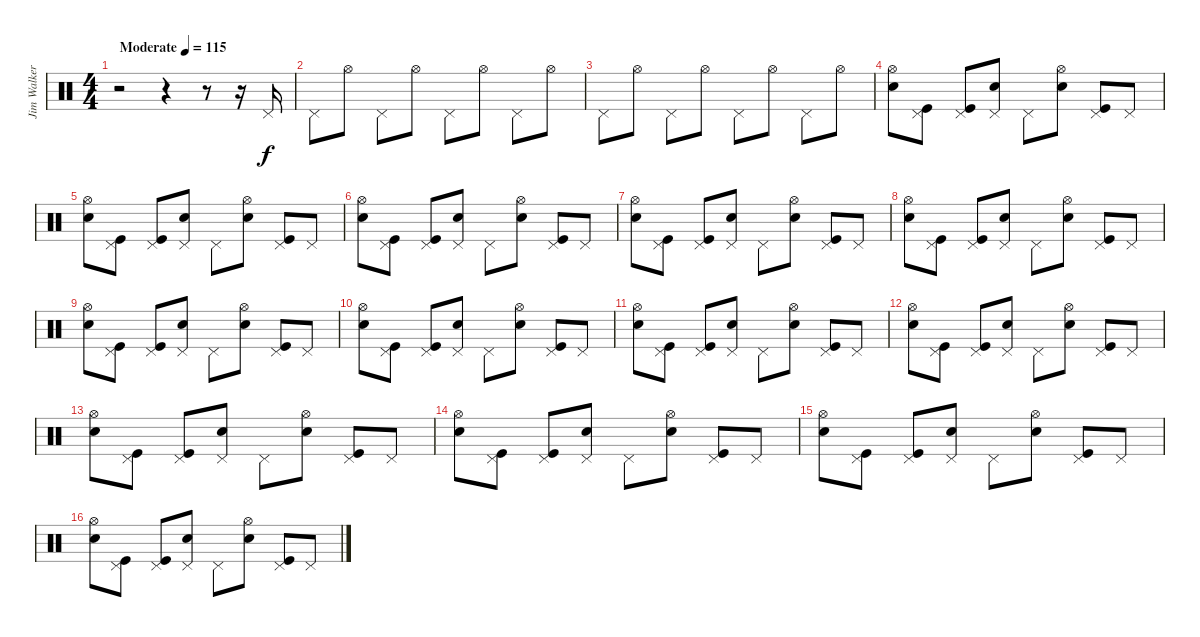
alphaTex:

\track ("Jim Walker-Drums" "Jim Walker") {instrument percussion}
\staff {score}
\articulation defaults
\ts (4 4)
\tempo (115 "Moderate")
\clef neutral
\ks c
r.2{dy f} r.4 r.8 r.16 "Pedal Hi-Hat (hit)".16 |
"Pedal Hi-Hat (hit)".8 "Hi-Hat (open)".8 "Pedal Hi-Hat (hit)".8 "Hi-Hat (open)".8 "Pedal Hi-Hat (hit)".8 "Hi-Hat (open)".8 "Pedal Hi-Hat (hit)".8 "Hi-Hat (open)".8 |
"Pedal Hi-Hat (hit)".8 "Hi-Hat (open)".8 "Pedal Hi-Hat (hit)".8 "Hi-Hat (open)".8 "Pedal Hi-Hat (hit)".8 "Hi-Hat (open)".8 "Pedal Hi-Hat (hit)".8 "Hi-Hat (open)".8 |
("Hi-Hat (open)" "Electric Snare (hit)").8 ("Pedal Hi-Hat (hit)" "Kick (hit)").8 ("Pedal Hi-Hat (hit)" "Kick (hit)").8 ("Pedal Hi-Hat (hit)" "Electric Snare (hit)").8 "Pedal Hi-Hat (hit)".8 ("Hi-Hat (open)" "Electric Snare (hit)").8 ("Pedal Hi-Hat (hit)" "Kick (hit)").8 "Pedal Hi-Hat (hit)".8 |
("Hi-Hat (open)" "Electric Snare (hit)").8 ("Pedal Hi-Hat (hit)" "Kick (hit)").8 ("Pedal Hi-Hat (hit)" "Kick (hit)").8 ("Pedal Hi-Hat (hit)" "Electric Snare (hit)").8 "Pedal Hi-Hat (hit)".8 ("Hi-Hat (open)" "Electric Snare (hit)").8 ("Pedal Hi-Hat (hit)" "Kick (hit)").8 "Pedal Hi-Hat (hit)".8 |
("Hi-Hat (open)" "Electric Snare (hit)").8 ("Pedal Hi-Hat (hit)" "Kick (hit)").8 ("Pedal Hi-Hat (hit)" "Kick (hit)").8 ("Pedal Hi-Hat (hit)" "Electric Snare (hit)").8 "Pedal Hi-Hat (hit)".8 ("Hi-Hat (open)" "Electric Snare (hit)").8 ("Pedal Hi-Hat (hit)" "Kick (hit)").8 "Pedal Hi-Hat (hit)".8 |
("Hi-Hat (open)" "Electric Snare (hit)").8 ("Pedal Hi-Hat (hit)" "Kick (hit)").8 ("Pedal Hi-Hat (hit)" "Kick (hit)").8 ("Pedal Hi-Hat (hit)" "Electric Snare (hit)").8 "Pedal Hi-Hat (hit)".8 ("Hi-Hat (open)" "Electric Snare (hit)").8 ("Pedal Hi-Hat (hit)" "Kick (hit)").8 "Pedal Hi-Hat (hit)".8 |
("Hi-Hat (open)" "Electric Snare (hit)").8 ("Pedal Hi-Hat (hit)" "Kick (hit)").8 ("Pedal Hi-Hat (hit)" "Kick (hit)").8 ("Pedal Hi-Hat (hit)" "Electric Snare (hit)").8 "Pedal Hi-Hat (hit)".8 ("Hi-Hat (open)" "Electric Snare (hit)").8 ("Pedal Hi-Hat (hit)" "Kick (hit)").8 "Pedal Hi-Hat (hit)".8 |
("Hi-Hat (open)" "Electric Snare (hit)").8 ("Pedal Hi-Hat (hit)" "Kick (hit)").8 ("Pedal Hi-Hat (hit)" "Kick (hit)").8 ("Pedal Hi-Hat (hit)" "Electric Snare (hit)").8 "Pedal Hi-Hat (hit)".8 ("Hi-Hat (open)" "Electric Snare (hit)").8 ("Pedal Hi-Hat (hit)" "Kick (hit)").8 "Pedal Hi-Hat (hit)".8 |
("Hi-Hat (open)" "Electric Snare (hit)").8 ("Pedal Hi-Hat (hit)" "Kick (hit)").8 ("Pedal Hi-Hat (hit)" "Kick (hit)").8 ("Pedal Hi-Hat (hit)" "Electric Snare (hit)").8 "Pedal Hi-Hat (hit)".8 ("Hi-Hat (open)" "Electric Snare (hit)").8 ("Pedal Hi-Hat (hit)" "Kick (hit)").8 "Pedal Hi-Hat (hit)".8 |
("Hi-Hat (open)" "Electric Snare (hit)").8 ("Pedal Hi-Hat (hit)" "Kick (hit)").8 ("Pedal Hi-Hat (hit)" "Kick (hit)").8 ("Pedal Hi-Hat (hit)" "Electric Snare (hit)").8 "Pedal Hi-Hat (hit)".8 ("Hi-Hat (open)" "Electric Snare (hit)").8 ("Pedal Hi-Hat (hit)" "Kick (hit)").8 "Pedal Hi-Hat (hit)".8 |
("Hi-Hat (open)" "Electric Snare (hit)").8 ("Pedal Hi-Hat (hit)" "Kick (hit)").8 ("Pedal Hi-Hat (hit)" "Kick (hit)").8 ("Pedal Hi-Hat (hit)" "Electric Snare (hit)").8 "Pedal Hi-Hat (hit)".8 ("Hi-Hat (open)" "Electric Snare (hit)").8 ("Pedal Hi-Hat (hit)" "Kick (hit)").8 "Pedal Hi-Hat (hit)".8 |
("Hi-Hat (open)" "Electric Snare (hit)").8 ("Pedal Hi-Hat (hit)" "Kick (hit)").8 ("Pedal Hi-Hat (hit)" "Kick (hit)").8 ("Pedal Hi-Hat (hit)" "Electric Snare (hit)").8 "Pedal Hi-Hat (hit)".8 ("Hi-Hat (open)" "Electric Snare (hit)").8 ("Pedal Hi-Hat (hit)" "Kick (hit)").8 "Pedal Hi-Hat (hit)".8 |
("Hi-Hat (open)" "Electric Snare (hit)").8 ("Pedal Hi-Hat (hit)" "Kick (hit)").8 ("Pedal Hi-Hat (hit)" "Kick (hit)").8 ("Pedal Hi-Hat (hit)" "Electric Snare (hit)").8 "Pedal Hi-Hat (hit)".8 ("Hi-Hat (open)" "Electric Snare (hit)").8 ("Pedal Hi-Hat (hit)" "Kick (hit)").8 "Pedal Hi-Hat (hit)".8 |
("Hi-Hat (open)" "Electric Snare (hit)").8 ("Pedal Hi-Hat (hit)" "Kick (hit)").8 ("Pedal Hi-Hat (hit)" "Kick (hit)").8 ("Pedal Hi-Hat (hit)" "Electric Snare (hit)").8 "Pedal Hi-Hat (hit)".8 ("Hi-Hat (open)" "Electric Snare (hit)").8 ("Pedal Hi-Hat (hit)" "Kick (hit)").8 "Pedal Hi-Hat (hit)".8 |
("Hi-Hat (open)" "Electric Snare (hit)").8 ("Pedal Hi-Hat (hit)" "Kick (hit)").8 ("Pedal Hi-Hat (hit)" "Kick (hit)").8 ("Pedal Hi-Hat (hit)" "Electric Snare (hit)").8 "Pedal Hi-Hat (hit)".8 ("Hi-Hat (open)" "Electric Snare (hit)").8 ("Pedal Hi-Hat (hit)" "Kick (hit)").8 "Pedal Hi-Hat (hit)".8
